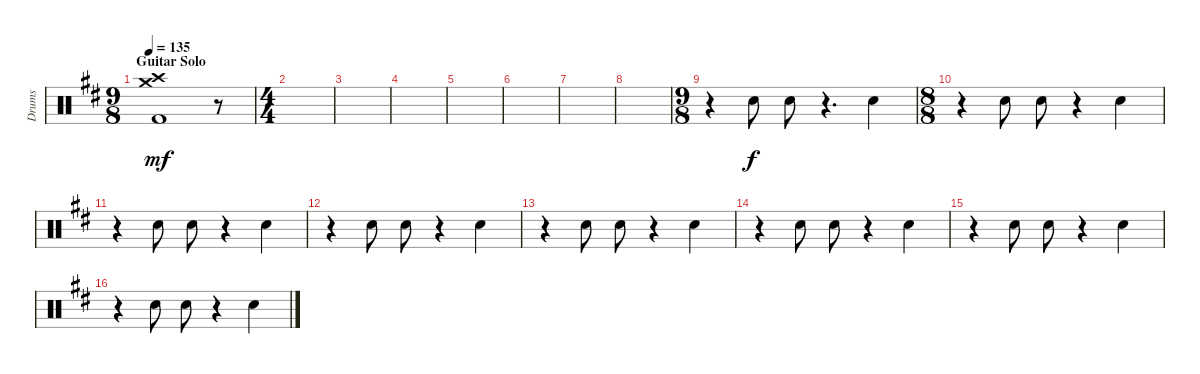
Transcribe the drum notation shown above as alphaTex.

\track ("Drums" "Drums") {instrument percussion}
\staff {score}
\articulation defaults
\ts (9 8)
\section ("" "Guitar Solo")
\tempo 135
\clef neutral
\ks d
("Crash high (hit)" "Crash medium (hit)" "Kick (hit) 2").1{dy mf} r.8 |
\ts (4 4)
|
|
|
|
|
|
|
\ts (9 8)
r.4 "Hand Clap (hit)".8{dy f} "Hand Clap (hit)".8 r.4{d} "Hand Clap (hit)".4 |
\ts (8 8)
r.4 "Hand Clap (hit)".8 "Hand Clap (hit)".8 r.4 "Hand Clap (hit)".4 |
r.4 "Hand Clap (hit)".8 "Hand Clap (hit)".8 r.4 "Hand Clap (hit)".4 |
r.4 "Hand Clap (hit)".8 "Hand Clap (hit)".8 r.4 "Hand Clap (hit)".4 |
r.4 "Hand Clap (hit)".8 "Hand Clap (hit)".8 r.4 "Hand Clap (hit)".4 |
r.4 "Hand Clap (hit)".8 "Hand Clap (hit)".8 r.4 "Hand Clap (hit)".4 |
r.4 "Hand Clap (hit)".8 "Hand Clap (hit)".8 r.4 "Hand Clap (hit)".4 |
r.4 "Hand Clap (hit)".8 "Hand Clap (hit)".8 r.4 "Hand Clap (hit)".4
